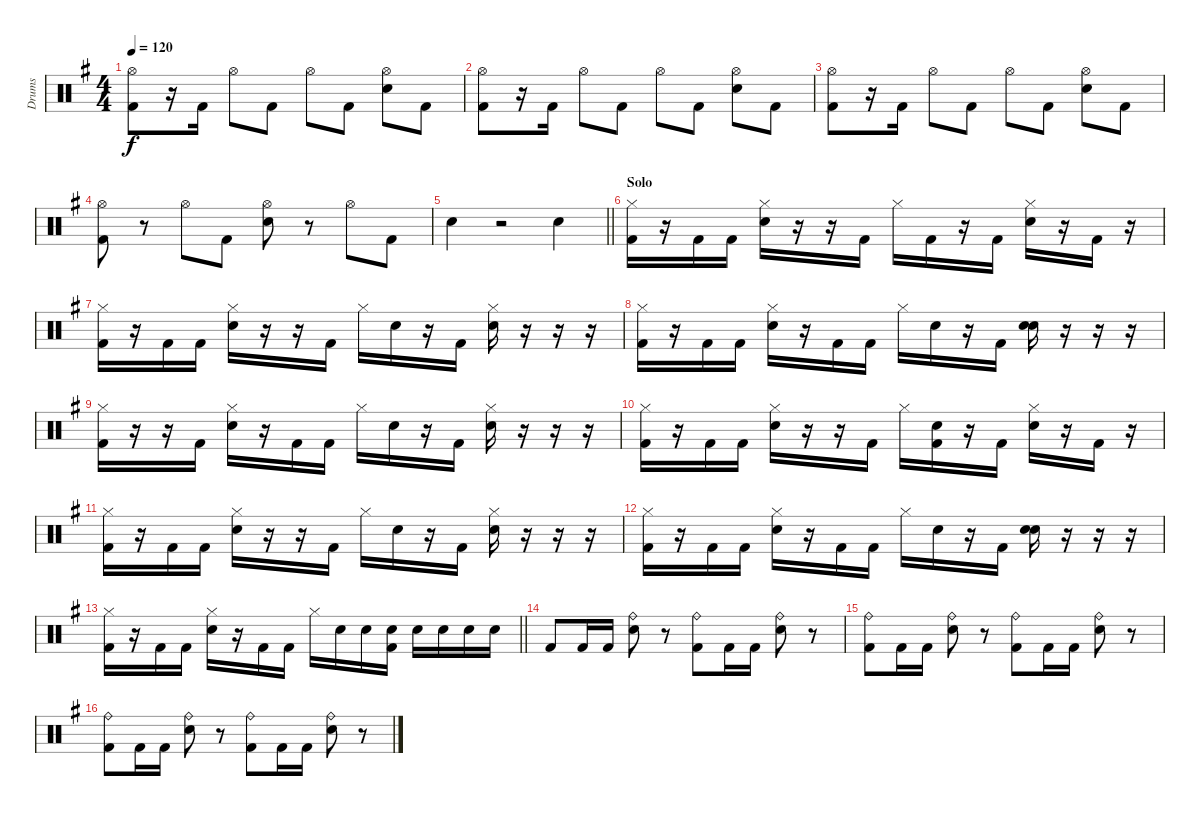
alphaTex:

\track ("Drums" "Drums") {instrument percussion}
\staff {score}
\articulation defaults
\ts (4 4)
\tempo 120
\clef neutral
\ks g
("Hi-Hat (open)" "Kick (hit) 2").8{dy f} r.16 "Kick (hit) 2".16 "Hi-Hat (open)".8 "Kick (hit) 2".8 "Hi-Hat (open)".8 "Kick (hit) 2".8 ("Hi-Hat (open)" "Electric Snare (hit)").8 "Kick (hit) 2".8 |
("Hi-Hat (open)" "Kick (hit) 2").8 r.16 "Kick (hit) 2".16 "Hi-Hat (open)".8 "Kick (hit) 2".8 "Hi-Hat (open)".8 "Kick (hit) 2".8 ("Hi-Hat (open)" "Electric Snare (hit)").8 "Kick (hit) 2".8 |
("Hi-Hat (open)" "Kick (hit) 2").8 r.16 "Kick (hit) 2".16 "Hi-Hat (open)".8 "Kick (hit) 2".8 "Hi-Hat (open)".8 "Kick (hit) 2".8 ("Hi-Hat (open)" "Electric Snare (hit)").8 "Kick (hit) 2".8 |
("Hi-Hat (open)" "Kick (hit) 2").8 r.8 "Hi-Hat (open)".8 "Kick (hit) 2".8 ("Hi-Hat (open)" "Electric Snare (hit)").8 r.8 "Hi-Hat (open)".8 "Kick (hit) 2".8 |
\barLineRight lightlight "Electric Snare (hit)".4
r.2 "Electric Snare (hit)".4 |
\section ("" "Solo")
("Hi-Hat (closed)" "Kick (hit) 2").16 r.16 "Kick (hit) 2".16 "Kick (hit) 2".16 ("Hi-Hat (closed)" "Electric Snare (hit)").16 r.16 r.16 "Kick (hit) 2".16 "Hi-Hat (closed)".16 "Kick (hit) 2".16 r.16 "Kick (hit) 2".16 ("Hi-Hat (closed)" "Electric Snare (hit)").16 r.16 "Kick (hit) 2".16 r.16 |
("Hi-Hat (closed)" "Kick (hit) 2").16 r.16 "Kick (hit) 2".16 "Kick (hit) 2".16 ("Hi-Hat (closed)" "Electric Snare (hit)").16 r.16 r.16 "Kick (hit) 2".16 "Hi-Hat (closed)".16 "Electric Snare (hit)".16 r.16 "Kick (hit) 2".16 ("Hi-Hat (closed)" "Electric Snare (hit)").16 r.16 r.16 r.16 |
("Hi-Hat (closed)" "Kick (hit) 2").16 r.16 "Kick (hit) 2".16 "Kick (hit) 2".16 ("Hi-Hat (closed)" "Electric Snare (hit)").16 r.16 "Kick (hit) 2".16 "Kick (hit) 2".16 "Hi-Hat (closed)".16 "Electric Snare (hit)".16 r.16 "Kick (hit) 2".16 ("Electric Snare (hit)" "Electric Snare (hit)").16 r.16 r.16 r.16 |
("Hi-Hat (closed)" "Kick (hit) 2").16 r.16 r.16 "Kick (hit) 2".16 ("Hi-Hat (closed)" "Electric Snare (hit)").16 r.16 "Kick (hit) 2".16 "Kick (hit) 2".16 "Hi-Hat (closed)".16 "Electric Snare (hit)".16 r.16 "Kick (hit) 2".16 ("Hi-Hat (closed)" "Electric Snare (hit)").16 r.16 r.16 r.16 |
("Hi-Hat (closed)" "Kick (hit) 2").16 r.16 "Kick (hit) 2".16 "Kick (hit) 2".16 ("Hi-Hat (closed)" "Electric Snare (hit)").16 r.16 r.16 "Kick (hit) 2".16 "Hi-Hat (closed)".16 ("Electric Snare (hit)" "Kick (hit) 2").16 r.16 "Kick (hit) 2".16 ("Hi-Hat (closed)" "Electric Snare (hit)").16 r.16 "Kick (hit) 2".16 r.16 |
("Hi-Hat (closed)" "Kick (hit) 2").16 r.16 "Kick (hit) 2".16 "Kick (hit) 2".16 ("Hi-Hat (closed)" "Electric Snare (hit)").16 r.16 r.16 "Kick (hit) 2".16 "Hi-Hat (closed)".16 "Electric Snare (hit)".16 r.16 "Kick (hit) 2".16 ("Hi-Hat (closed)" "Electric Snare (hit)").16 r.16 r.16 r.16 |
("Hi-Hat (closed)" "Kick (hit) 2").16 r.16 "Kick (hit) 2".16 "Kick (hit) 2".16 ("Hi-Hat (closed)" "Electric Snare (hit)").16 r.16 "Kick (hit) 2".16 "Kick (hit) 2".16 "Hi-Hat (closed)".16 "Electric Snare (hit)".16 r.16 "Kick (hit) 2".16 ("Electric Snare (hit)" "Electric Snare (hit)").16 r.16 r.16 r.16 |
\barLineRight lightlight
("Hi-Hat (closed)" "Kick (hit) 2").16 r.16 "Kick (hit) 2".16 "Kick (hit) 2".16 ("Hi-Hat (closed)" "Electric Snare (hit)").16 r.16 "Kick (hit) 2".16 "Kick (hit) 2".16 "Hi-Hat (closed)".16 "Electric Snare (hit)".16 "Electric Snare (hit)".16 ("Electric Snare (hit)" "Kick (hit) 2").16 "Electric Snare (hit)".16 "Electric Snare (hit)".16 "Electric Snare (hit)".16 "Electric Snare (hit)".16 |
"Kick (hit) 2".8 "Kick (hit) 2".16 "Kick (hit) 2".16 ("Ride (bell)" "Electric Snare (hit)").8 r.8 ("Ride (bell)" "Kick (hit) 2").8 "Kick (hit) 2".16 "Kick (hit) 2".16 ("Ride (bell)" "Electric Snare (hit)").8 r.8 |
("Ride (bell)" "Kick (hit) 2").8 "Kick (hit) 2".16 "Kick (hit) 2".16 ("Ride (bell)" "Electric Snare (hit)").8 r.8 ("Ride (bell)" "Kick (hit) 2").8 "Kick (hit) 2".16 "Kick (hit) 2".16 ("Ride (bell)" "Electric Snare (hit)").8 r.8 |
("Ride (bell)" "Kick (hit) 2").8 "Kick (hit) 2".16 "Kick (hit) 2".16 ("Ride (bell)" "Electric Snare (hit)").8 r.8 ("Ride (bell)" "Kick (hit) 2").8 "Kick (hit) 2".16 "Kick (hit) 2".16 ("Ride (bell)" "Electric Snare (hit)").8 r.8
